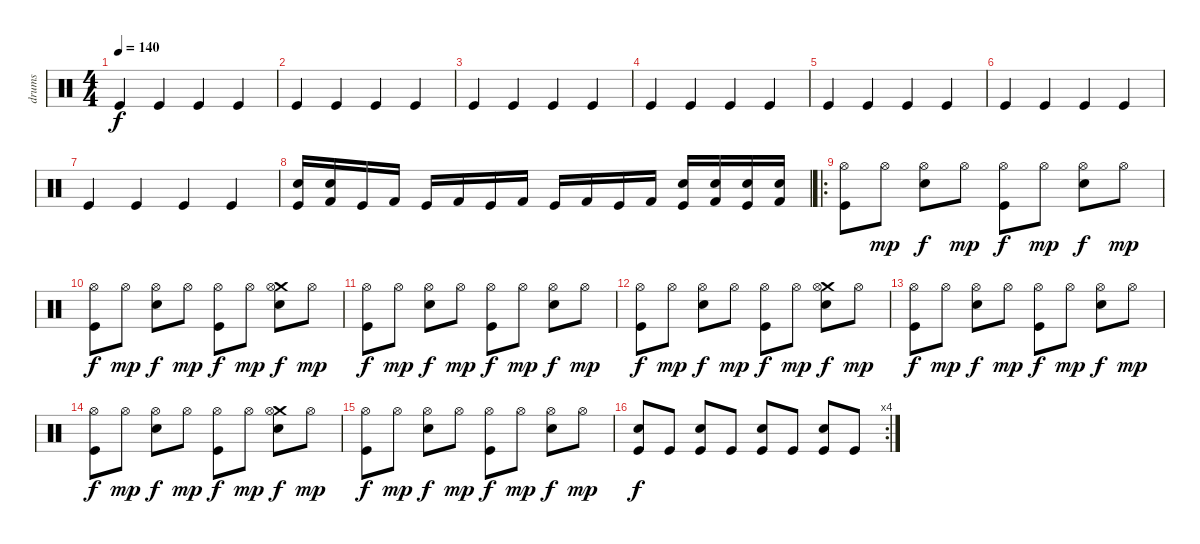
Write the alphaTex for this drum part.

\track ("drums" "drums") {instrument percussion}
\staff {score}
\articulation defaults
\ts (4 4)
\tempo 140
\clef neutral
\ks c "Kick (hit)".4{dy f} "Kick (hit)".4 "Kick (hit)".4 "Kick (hit)".4
|
"Kick (hit)".4 "Kick (hit)".4 "Kick (hit)".4 "Kick (hit)".4 |
"Kick (hit)".4 "Kick (hit)".4 "Kick (hit)".4 "Kick (hit)".4 |
"Kick (hit)".4 "Kick (hit)".4 "Kick (hit)".4 "Kick (hit)".4 |
"Kick (hit)".4 "Kick (hit)".4 "Kick (hit)".4 "Kick (hit)".4 |
"Kick (hit)".4 "Kick (hit)".4 "Kick (hit)".4 "Kick (hit)".4 |
"Kick (hit)".4 "Kick (hit)".4 "Kick (hit)".4 "Kick (hit)".4 |
("Snare (hit) 2" "Kick (hit)").16 ("Snare (hit) 2" "Kick (hit) 2").16 "Kick (hit)".16 "Kick (hit) 2".16 "Kick (hit)".16 "Kick (hit) 2".16 "Kick (hit)".16 "Kick (hit) 2".16 "Kick (hit)".16 "Kick (hit) 2".16 "Kick (hit)".16 "Kick (hit) 2".16 ("Snare (hit) 2" "Kick (hit)").16 ("Snare (hit) 2" "Kick (hit) 2").16 ("Snare (hit) 2" "Kick (hit)").16 ("Snare (hit) 2" "Kick (hit) 2").16 |
\ro
("Hi-Hat (open)" "Kick (hit)").8 "Hi-Hat (open)".8{dy mp} ("Hi-Hat (open)" "Snare (hit) 2").8{dy f} "Hi-Hat (open)".8{dy mp} ("Hi-Hat (open)" "Kick (hit)").8{dy f} "Hi-Hat (open)".8{dy mp} ("Hi-Hat (open)" "Snare (hit) 2").8{dy f} "Hi-Hat (open)".8{dy mp} |
("Hi-Hat (open)" "Kick (hit)").8{dy f} "Hi-Hat (open)".8{dy mp} ("Hi-Hat (open)" "Snare (hit) 2").8{dy f} "Hi-Hat (open)".8{dy mp} ("Hi-Hat (open)" "Kick (hit)").8{dy f} "Hi-Hat (open)".8{dy mp} ("Crash medium (hit)" "Hi-Hat (open)" "Snare (hit) 2").8{dy f} "Hi-Hat (open)".8{dy mp} |
("Hi-Hat (open)" "Kick (hit)").8{dy f} "Hi-Hat (open)".8{dy mp} ("Hi-Hat (open)" "Snare (hit) 2").8{dy f} "Hi-Hat (open)".8{dy mp} ("Hi-Hat (open)" "Kick (hit)").8{dy f} "Hi-Hat (open)".8{dy mp} ("Hi-Hat (open)" "Snare (hit) 2").8{dy f} "Hi-Hat (open)".8{dy mp} |
("Hi-Hat (open)" "Kick (hit)").8{dy f} "Hi-Hat (open)".8{dy mp} ("Hi-Hat (open)" "Snare (hit) 2").8{dy f} "Hi-Hat (open)".8{dy mp} ("Hi-Hat (open)" "Kick (hit)").8{dy f} "Hi-Hat (open)".8{dy mp} ("Crash medium (hit)" "Hi-Hat (open)" "Snare (hit) 2").8{dy f} "Hi-Hat (open)".8{dy mp} |
("Hi-Hat (open)" "Kick (hit)").8{dy f} "Hi-Hat (open)".8{dy mp} ("Hi-Hat (open)" "Snare (hit) 2").8{dy f} "Hi-Hat (open)".8{dy mp} ("Hi-Hat (open)" "Kick (hit)").8{dy f} "Hi-Hat (open)".8{dy mp} ("Hi-Hat (open)" "Snare (hit) 2").8{dy f} "Hi-Hat (open)".8{dy mp} |
("Hi-Hat (open)" "Kick (hit)").8{dy f} "Hi-Hat (open)".8{dy mp} ("Hi-Hat (open)" "Snare (hit) 2").8{dy f} "Hi-Hat (open)".8{dy mp} ("Hi-Hat (open)" "Kick (hit)").8{dy f} "Hi-Hat (open)".8{dy mp} ("Crash medium (hit)" "Hi-Hat (open)" "Snare (hit) 2").8{dy f} "Hi-Hat (open)".8{dy mp} |
("Hi-Hat (open)" "Kick (hit)").8{dy f} "Hi-Hat (open)".8{dy mp} ("Hi-Hat (open)" "Snare (hit) 2").8{dy f} "Hi-Hat (open)".8{dy mp} ("Hi-Hat (open)" "Kick (hit)").8{dy f} "Hi-Hat (open)".8{dy mp} ("Hi-Hat (open)" "Snare (hit) 2").8{dy f} "Hi-Hat (open)".8{dy mp} |
\rc 4
("Snare (hit) 2" "Kick (hit)").8{dy f} "Kick (hit)".8 ("Snare (hit) 2" "Kick (hit)").8 "Kick (hit)".8 ("Snare (hit) 2" "Kick (hit)").8 "Kick (hit)".8 ("Snare (hit) 2" "Kick (hit)").8 "Kick (hit)".8
